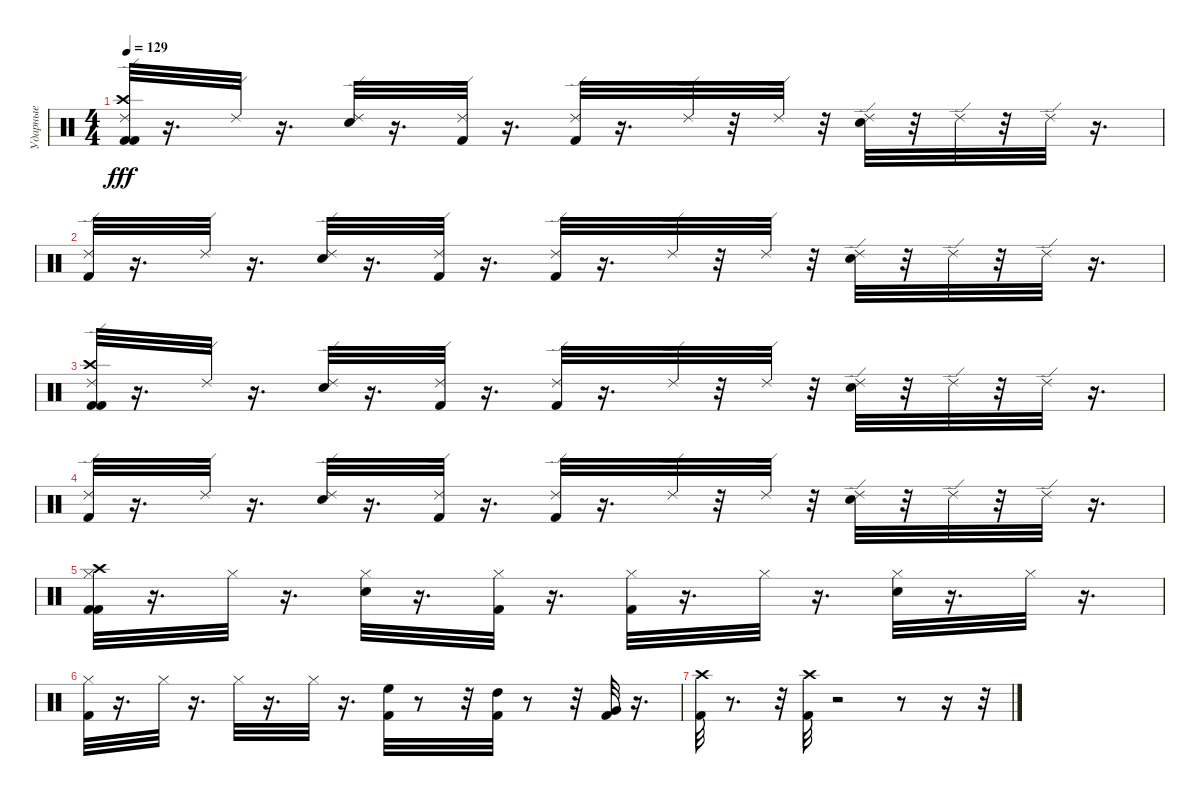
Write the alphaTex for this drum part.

\track ("Ударные" "Ударные") {instrument percussion}
\staff {score}
\articulation defaults
\ts (4 4)
\tempo 129
\clef neutral
\ks c
("Kick (hit) 2" "Crash high (hit)" "Kick (hit) 2" "Ride (edge) 2").32{dy fff balance 8} r.16{d} "Ride (edge) 2".32{balance 8} r.16{d} ("Electric Snare (hit)" "Ride (edge) 2").32{balance 8} r.16{d} ("Kick (hit) 2" "Ride (edge) 2").32{balance 8} r.16{d} ("Kick (hit) 2" "Ride (edge) 2").32{balance 8} r.16{d} "Ride (edge) 2".32{balance 8} r.32 "Ride (edge) 2".32{balance 8} r.32 ("Electric Snare (hit)" "Ride (edge) 2").32{balance 8} r.32 "Ride (edge) 2".32{balance 8} r.32 "Ride (edge) 2".32{balance 8} r.16{d} |
("Kick (hit) 2" "Ride (edge) 2").32{balance 8} r.16{d} "Ride (edge) 2".32{balance 8} r.16{d} ("Electric Snare (hit)" "Ride (edge) 2").32{balance 8} r.16{d} ("Kick (hit) 2" "Ride (edge) 2").32{balance 8} r.16{d} ("Kick (hit) 2" "Ride (edge) 2").32{balance 8} r.16{d} "Ride (edge) 2".32{balance 8} r.32 "Ride (edge) 2".32{balance 8} r.32 ("Electric Snare (hit)" "Ride (edge) 2").32{balance 8} r.32 "Ride (edge) 2".32{balance 8} r.32 "Ride (edge) 2".32{balance 8} r.16{d} |
("Kick (hit) 2" "Crash high (hit)" "Kick (hit) 2" "Ride (edge) 2").32{balance 8} r.16{d} "Ride (edge) 2".32{balance 8} r.16{d} ("Electric Snare (hit)" "Ride (edge) 2").32{balance 8} r.16{d} ("Kick (hit) 2" "Ride (edge) 2").32{balance 8} r.16{d} ("Kick (hit) 2" "Ride (edge) 2").32{balance 8} r.16{d} "Ride (edge) 2".32{balance 8} r.32 "Ride (edge) 2".32{balance 8} r.32 ("Electric Snare (hit)" "Ride (edge) 2").32{balance 8} r.32 "Ride (edge) 2".32{balance 8} r.32 "Ride (edge) 2".32{balance 8} r.16{d} |
("Kick (hit) 2" "Ride (edge) 2").32{balance 8} r.16{d} "Ride (edge) 2".32{balance 8} r.16{d} ("Electric Snare (hit)" "Ride (edge) 2").32{balance 8} r.16{d} ("Kick (hit) 2" "Ride (edge) 2").32{balance 8} r.16{d} ("Kick (hit) 2" "Ride (edge) 2").32{balance 8} r.16{d} "Ride (edge) 2".32{balance 8} r.32 "Ride (edge) 2".32{balance 8} r.32 ("Electric Snare (hit)" "Ride (edge) 2").32{balance 8} r.32 "Ride (edge) 2".32{balance 8} r.32 "Ride (edge) 2".32{balance 8} r.16{d} |
("Kick (hit) 2" "Crash high (hit)" "Kick (hit) 2" "Hi-Hat (closed)").32{balance 10} r.16{d} "Hi-Hat (closed)".32{balance 10} r.16{d} ("Electric Snare (hit)" "Hi-Hat (closed)").32{balance 10} r.16{d} ("Kick (hit) 2" "Hi-Hat (closed)").32{balance 10} r.16{d} ("Kick (hit) 2" "Hi-Hat (closed)").32{balance 10} r.16{d} "Hi-Hat (closed)".32{balance 10} r.16{d} ("Electric Snare (hit)" "Hi-Hat (closed)").32{balance 10} r.16{d} "Hi-Hat (closed)".32{balance 10} r.16{d} |
("Kick (hit) 2" "Hi-Hat (closed)").32{balance 10} r.16{d} "Hi-Hat (closed)".32{balance 10} r.16{d} "Hi-Hat (closed)".32{balance 10} r.16{d} "Hi-Hat (closed)".32{balance 10} r.16{d} ("Kick (hit) 2" "High Floor Tom (hit)").32{balance 8} r.8 r.32 ("Kick (hit) 2" "High Tom (hit)").32{balance 11} r.8 r.32 ("Kick (hit) 2" "Very Low Tom (hit)").32{balance 5} r.16{d} |
("Kick (hit) 2" "Crash high (hit)").32{balance 8} r.8{d} r.32 ("Kick (hit) 2" "Crash high (hit)").32{balance 8} r.2 r.8 r.16 r.32
